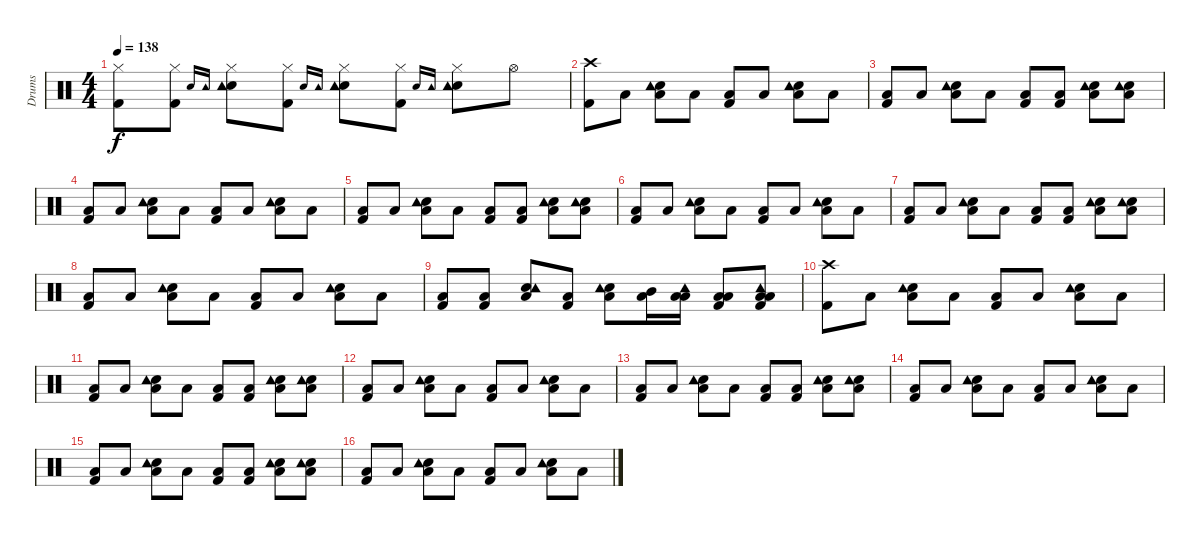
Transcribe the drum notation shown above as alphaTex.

\track ("Drums" "Drums") {instrument percussion}
\staff {score}
\articulation defaults
\ts (4 4)
\tempo 138
\clef neutral
\ks c
("Hi-Hat (closed)" "Kick (hit) 2").8{dy f} ("Hi-Hat (closed)" "Kick (hit) 2").8 "Electric Snare (hit)".16{gr onbeat} "Tambourine (hit)".16{gr onbeat} ("Hi-Hat (closed)" "Electric Snare (hit)" "Tambourine (hit)").8 ("Hi-Hat (closed)" "Kick (hit) 2").8 "Electric Snare (hit)".16{gr onbeat} "Tambourine (hit)".16{gr onbeat} ("Hi-Hat (closed)" "Electric Snare (hit)" "Tambourine (hit)").8 ("Hi-Hat (closed)" "Kick (hit) 2").8 "Electric Snare (hit)".16{gr onbeat} "Tambourine (hit)".16{gr onbeat} ("Hi-Hat (closed)" "Electric Snare (hit)" "Tambourine (hit)").8 "Hi-Hat (open)".8 |
("Kick (hit) 2" "Crash high (hit)").8 "Low Floor Tom (hit)".8 ("Low Floor Tom (hit)" "Electric Snare (hit)" "Tambourine (hit)").8 "Low Floor Tom (hit)".8 ("Low Floor Tom (hit)" "Kick (hit) 2").8 "Low Floor Tom (hit)".8 ("Low Floor Tom (hit)" "Electric Snare (hit)" "Tambourine (hit)").8 "Low Floor Tom (hit)".8 |
("Low Floor Tom (hit)" "Kick (hit) 2").8 "Low Floor Tom (hit)".8 ("Low Floor Tom (hit)" "Electric Snare (hit)" "Tambourine (hit)").8 "Low Floor Tom (hit)".8 ("Low Floor Tom (hit)" "Kick (hit) 2").8 ("Low Floor Tom (hit)" "Kick (hit) 2").8 ("Low Floor Tom (hit)" "Electric Snare (hit)" "Tambourine (hit)").8 ("Low Floor Tom (hit)" "Electric Snare (hit)" "Tambourine (hit)").8 |
("Low Floor Tom (hit)" "Kick (hit) 2").8 "Low Floor Tom (hit)".8 ("Low Floor Tom (hit)" "Electric Snare (hit)" "Tambourine (hit)").8 "Low Floor Tom (hit)".8 ("Low Floor Tom (hit)" "Kick (hit) 2").8 "Low Floor Tom (hit)".8 ("Low Floor Tom (hit)" "Electric Snare (hit)" "Tambourine (hit)").8 "Low Floor Tom (hit)".8 |
("Low Floor Tom (hit)" "Kick (hit) 2").8 "Low Floor Tom (hit)".8 ("Low Floor Tom (hit)" "Electric Snare (hit)" "Tambourine (hit)").8 "Low Floor Tom (hit)".8 ("Low Floor Tom (hit)" "Kick (hit) 2").8 ("Low Floor Tom (hit)" "Kick (hit) 2").8 ("Low Floor Tom (hit)" "Electric Snare (hit)" "Tambourine (hit)").8 ("Low Floor Tom (hit)" "Electric Snare (hit)" "Tambourine (hit)").8 |
("Low Floor Tom (hit)" "Kick (hit) 2").8 "Low Floor Tom (hit)".8 ("Low Floor Tom (hit)" "Electric Snare (hit)" "Tambourine (hit)").8 "Low Floor Tom (hit)".8 ("Low Floor Tom (hit)" "Kick (hit) 2").8 "Low Floor Tom (hit)".8 ("Low Floor Tom (hit)" "Electric Snare (hit)" "Tambourine (hit)").8 "Low Floor Tom (hit)".8 |
("Low Floor Tom (hit)" "Kick (hit) 2").8 "Low Floor Tom (hit)".8 ("Low Floor Tom (hit)" "Electric Snare (hit)" "Tambourine (hit)").8 "Low Floor Tom (hit)".8 ("Low Floor Tom (hit)" "Kick (hit) 2").8 ("Low Floor Tom (hit)" "Kick (hit) 2").8 ("Low Floor Tom (hit)" "Electric Snare (hit)" "Tambourine (hit)").8 ("Low Floor Tom (hit)" "Electric Snare (hit)" "Tambourine (hit)").8 |
("Low Floor Tom (hit)" "Kick (hit) 2").8 "Low Floor Tom (hit)".8 ("Low Floor Tom (hit)" "Electric Snare (hit)" "Tambourine (hit)").8 "Low Floor Tom (hit)".8 ("Low Floor Tom (hit)" "Kick (hit) 2").8 "Low Floor Tom (hit)".8 ("Low Floor Tom (hit)" "Electric Snare (hit)" "Tambourine (hit)").8 "Low Floor Tom (hit)".8 |
("Low Floor Tom (hit)" "Kick (hit) 2").8 ("Low Floor Tom (hit)" "Kick (hit) 2").8 ("Low Floor Tom (hit)" "Electric Snare (hit)" "Tambourine (hit)").8 ("Low Floor Tom (hit)" "Kick (hit) 2").8 ("Low Floor Tom (hit)" "Electric Snare (hit)" "Tambourine (hit)").8 ("Low Floor Tom (hit)" "Mid Tom (hit)").16 ("Low Floor Tom (hit)" "Low Tom (hit)" "Tambourine (hit)").16 ("Low Floor Tom (hit)" "Low Tom (hit)" "Kick (hit) 2").8 ("Low Floor Tom (hit)" "Low Tom (hit)" "Kick (hit) 2" "Tambourine (hit)").8 |
("Crash high (hit)" "Kick (hit) 2").8 "Low Floor Tom (hit)".8 ("Low Floor Tom (hit)" "Electric Snare (hit)" "Tambourine (hit)").8 "Low Floor Tom (hit)".8 ("Low Floor Tom (hit)" "Kick (hit) 2").8 "Low Floor Tom (hit)".8 ("Low Floor Tom (hit)" "Electric Snare (hit)" "Tambourine (hit)").8 "Low Floor Tom (hit)".8 |
("Low Floor Tom (hit)" "Kick (hit) 2").8 "Low Floor Tom (hit)".8 ("Low Floor Tom (hit)" "Electric Snare (hit)" "Tambourine (hit)").8 "Low Floor Tom (hit)".8 ("Low Floor Tom (hit)" "Kick (hit) 2").8 ("Low Floor Tom (hit)" "Kick (hit) 2").8 ("Low Floor Tom (hit)" "Electric Snare (hit)" "Tambourine (hit)").8 ("Low Floor Tom (hit)" "Electric Snare (hit)" "Tambourine (hit)").8 |
("Low Floor Tom (hit)" "Kick (hit) 2").8 "Low Floor Tom (hit)".8 ("Low Floor Tom (hit)" "Electric Snare (hit)" "Tambourine (hit)").8 "Low Floor Tom (hit)".8 ("Low Floor Tom (hit)" "Kick (hit) 2").8 "Low Floor Tom (hit)".8 ("Low Floor Tom (hit)" "Electric Snare (hit)" "Tambourine (hit)").8 "Low Floor Tom (hit)".8 |
("Low Floor Tom (hit)" "Kick (hit) 2").8 "Low Floor Tom (hit)".8 ("Low Floor Tom (hit)" "Electric Snare (hit)" "Tambourine (hit)").8 "Low Floor Tom (hit)".8 ("Low Floor Tom (hit)" "Kick (hit) 2").8 ("Low Floor Tom (hit)" "Kick (hit) 2").8 ("Low Floor Tom (hit)" "Electric Snare (hit)" "Tambourine (hit)").8 ("Low Floor Tom (hit)" "Electric Snare (hit)" "Tambourine (hit)").8 |
("Low Floor Tom (hit)" "Kick (hit) 2").8 "Low Floor Tom (hit)".8 ("Low Floor Tom (hit)" "Electric Snare (hit)" "Tambourine (hit)").8 "Low Floor Tom (hit)".8 ("Low Floor Tom (hit)" "Kick (hit) 2").8 "Low Floor Tom (hit)".8 ("Low Floor Tom (hit)" "Electric Snare (hit)" "Tambourine (hit)").8 "Low Floor Tom (hit)".8 |
("Low Floor Tom (hit)" "Kick (hit) 2").8 "Low Floor Tom (hit)".8 ("Low Floor Tom (hit)" "Electric Snare (hit)" "Tambourine (hit)").8 "Low Floor Tom (hit)".8 ("Low Floor Tom (hit)" "Kick (hit) 2").8 ("Low Floor Tom (hit)" "Kick (hit) 2").8 ("Low Floor Tom (hit)" "Electric Snare (hit)" "Tambourine (hit)").8 ("Low Floor Tom (hit)" "Electric Snare (hit)" "Tambourine (hit)").8 |
("Low Floor Tom (hit)" "Kick (hit) 2").8 "Low Floor Tom (hit)".8 ("Low Floor Tom (hit)" "Electric Snare (hit)" "Tambourine (hit)").8 "Low Floor Tom (hit)".8 ("Low Floor Tom (hit)" "Kick (hit) 2").8 "Low Floor Tom (hit)".8 ("Low Floor Tom (hit)" "Electric Snare (hit)" "Tambourine (hit)").8 "Low Floor Tom (hit)".8
